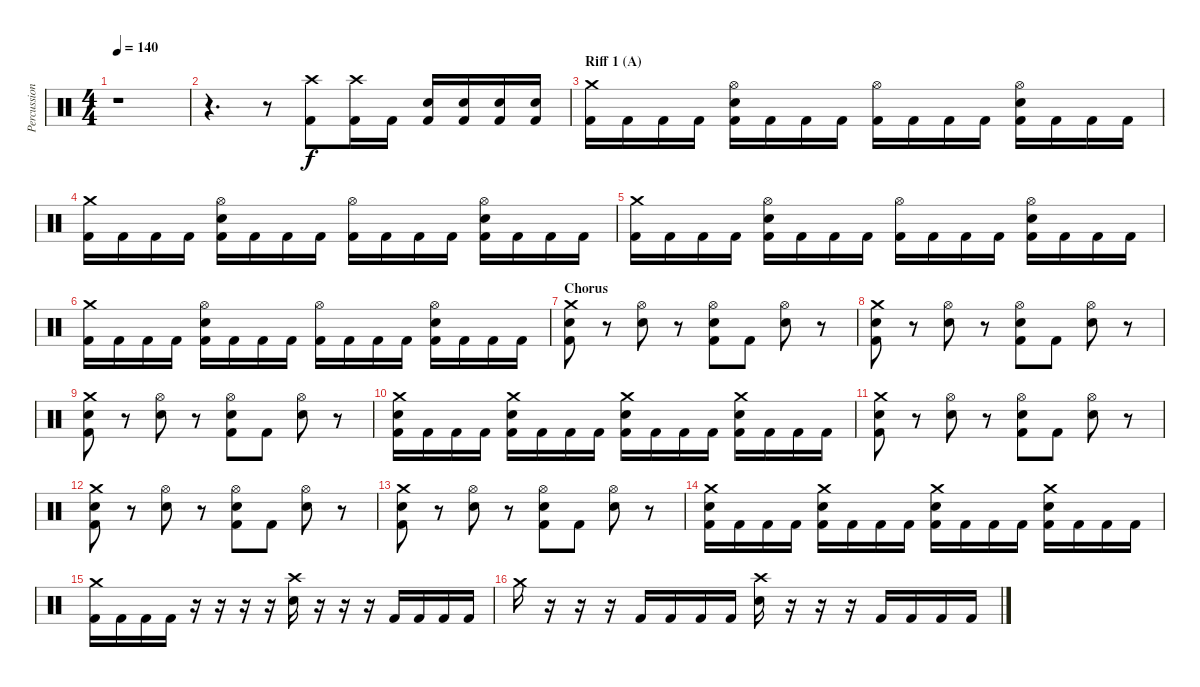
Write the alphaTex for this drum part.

\track ("Percussions" "Percussion") {instrument percussion}
\staff {score}
\articulation defaults
\ts (4 4)
\tempo 140
\clef neutral
\ks c
r.1{dy f} |
r.4{d} r.8 ("Crash high (hit)" "Kick (hit) 2").8 ("Crash high (hit)" "Kick (hit) 2").16 "Kick (hit) 2".16 ("Snare (hit) 2" "Kick (hit) 2").16 ("Snare (hit) 2" "Kick (hit) 2").16 ("Snare (hit) 2" "Kick (hit) 2").16 ("Snare (hit) 2" "Kick (hit) 2").16 |
\section ("" "Riff 1 (A)")
("Crash medium (hit)" "Kick (hit) 2").16 "Kick (hit) 2".16 "Kick (hit) 2".16 "Kick (hit) 2".16 ("Hi-Hat (open)" "Snare (hit) 2" "Kick (hit) 2").16 "Kick (hit) 2".16 "Kick (hit) 2".16 "Kick (hit) 2".16 ("Hi-Hat (open)" "Kick (hit) 2").16 "Kick (hit) 2".16 "Kick (hit) 2".16 "Kick (hit) 2".16 ("Hi-Hat (open)" "Snare (hit) 2" "Kick (hit) 2").16 "Kick (hit) 2".16 "Kick (hit) 2".16 "Kick (hit) 2".16 |
("Crash medium (hit)" "Kick (hit) 2").16 "Kick (hit) 2".16 "Kick (hit) 2".16 "Kick (hit) 2".16 ("Hi-Hat (open)" "Snare (hit) 2" "Kick (hit) 2").16 "Kick (hit) 2".16 "Kick (hit) 2".16 "Kick (hit) 2".16 ("Hi-Hat (open)" "Kick (hit) 2").16 "Kick (hit) 2".16 "Kick (hit) 2".16 "Kick (hit) 2".16 ("Hi-Hat (open)" "Snare (hit) 2" "Kick (hit) 2").16 "Kick (hit) 2".16 "Kick (hit) 2".16 "Kick (hit) 2".16 |
("Crash medium (hit)" "Kick (hit) 2").16 "Kick (hit) 2".16 "Kick (hit) 2".16 "Kick (hit) 2".16 ("Hi-Hat (open)" "Snare (hit) 2" "Kick (hit) 2").16 "Kick (hit) 2".16 "Kick (hit) 2".16 "Kick (hit) 2".16 ("Hi-Hat (open)" "Kick (hit) 2").16 "Kick (hit) 2".16 "Kick (hit) 2".16 "Kick (hit) 2".16 ("Hi-Hat (open)" "Snare (hit) 2" "Kick (hit) 2").16 "Kick (hit) 2".16 "Kick (hit) 2".16 "Kick (hit) 2".16 |
("Crash medium (hit)" "Kick (hit) 2").16 "Kick (hit) 2".16 "Kick (hit) 2".16 "Kick (hit) 2".16 ("Hi-Hat (open)" "Snare (hit) 2" "Kick (hit) 2").16 "Kick (hit) 2".16 "Kick (hit) 2".16 "Kick (hit) 2".16 ("Hi-Hat (open)" "Kick (hit) 2").16 "Kick (hit) 2".16 "Kick (hit) 2".16 "Kick (hit) 2".16 ("Hi-Hat (open)" "Snare (hit) 2" "Kick (hit) 2").16 "Kick (hit) 2".16 "Kick (hit) 2".16 "Kick (hit) 2".16 |
\section ("" "Chorus")
("Crash medium (hit)" "Snare (hit) 2" "Kick (hit) 2").8 r.8 ("Hi-Hat (open)" "Snare (hit) 2").8 r.8 ("Hi-Hat (open)" "Snare (hit) 2" "Kick (hit) 2").8 "Kick (hit) 2".8 ("Hi-Hat (open)" "Snare (hit) 2").8 r.8 |
("Crash medium (hit)" "Snare (hit) 2" "Kick (hit) 2").8 r.8 ("Hi-Hat (open)" "Snare (hit) 2").8 r.8 ("Hi-Hat (open)" "Snare (hit) 2" "Kick (hit) 2").8 "Kick (hit) 2".8 ("Hi-Hat (open)" "Snare (hit) 2").8 r.8 |
("Crash medium (hit)" "Snare (hit) 2" "Kick (hit) 2").8 r.8 ("Hi-Hat (open)" "Snare (hit) 2").8 r.8 ("Hi-Hat (open)" "Snare (hit) 2" "Kick (hit) 2").8 "Kick (hit) 2".8 ("Hi-Hat (open)" "Snare (hit) 2").8 r.8 |
("Crash medium (hit)" "Snare (hit) 2" "Kick (hit) 2").16 "Kick (hit) 2".16 "Kick (hit) 2".16 "Kick (hit) 2".16 ("Crash medium (hit)" "Snare (hit) 2" "Kick (hit) 2").16 "Kick (hit) 2".16 "Kick (hit) 2".16 "Kick (hit) 2".16 ("Crash medium (hit)" "Snare (hit) 2" "Kick (hit) 2").16 "Kick (hit) 2".16 "Kick (hit) 2".16 "Kick (hit) 2".16 ("Crash medium (hit)" "Snare (hit) 2" "Kick (hit) 2").16 "Kick (hit) 2".16 "Kick (hit) 2".16 "Kick (hit) 2".16 |
("Crash medium (hit)" "Snare (hit) 2" "Kick (hit) 2").8 r.8 ("Hi-Hat (open)" "Snare (hit) 2").8 r.8 ("Hi-Hat (open)" "Snare (hit) 2" "Kick (hit) 2").8 "Kick (hit) 2".8 ("Hi-Hat (open)" "Snare (hit) 2").8 r.8 |
("Crash medium (hit)" "Snare (hit) 2" "Kick (hit) 2").8 r.8 ("Hi-Hat (open)" "Snare (hit) 2").8 r.8 ("Hi-Hat (open)" "Snare (hit) 2" "Kick (hit) 2").8 "Kick (hit) 2".8 ("Hi-Hat (open)" "Snare (hit) 2").8 r.8 |
("Crash medium (hit)" "Snare (hit) 2" "Kick (hit) 2").8 r.8 ("Hi-Hat (open)" "Snare (hit) 2").8 r.8 ("Hi-Hat (open)" "Snare (hit) 2" "Kick (hit) 2").8 "Kick (hit) 2".8 ("Hi-Hat (open)" "Snare (hit) 2").8 r.8 |
("Crash medium (hit)" "Snare (hit) 2" "Kick (hit) 2").16 "Kick (hit) 2".16 "Kick (hit) 2".16 "Kick (hit) 2".16 ("Crash medium (hit)" "Snare (hit) 2" "Kick (hit) 2").16 "Kick (hit) 2".16 "Kick (hit) 2".16 "Kick (hit) 2".16 ("Crash medium (hit)" "Snare (hit) 2" "Kick (hit) 2").16 "Kick (hit) 2".16 "Kick (hit) 2".16 "Kick (hit) 2".16 ("Crash medium (hit)" "Snare (hit) 2" "Kick (hit) 2").16 "Kick (hit) 2".16 "Kick (hit) 2".16 "Kick (hit) 2".16 |
("Crash medium (hit)" "Kick (hit) 2").16 "Kick (hit) 2".16 "Kick (hit) 2".16 "Kick (hit) 2".16 r.16 r.16 r.16 r.16 ("Crash high (hit)" "Snare (hit) 2").16 r.16 r.16 r.16 "Kick (hit) 2".16 "Kick (hit) 2".16 "Kick (hit) 2".16 "Kick (hit) 2".16 |
"Crash medium (hit)".16 r.16 r.16 r.16 "Kick (hit) 2".16 "Kick (hit) 2".16 "Kick (hit) 2".16 "Kick (hit) 2".16 ("Crash high (hit)" "Snare (hit) 2").16 r.16 r.16 r.16 "Kick (hit) 2".16 "Kick (hit) 2".16 "Kick (hit) 2".16 "Kick (hit) 2".16
